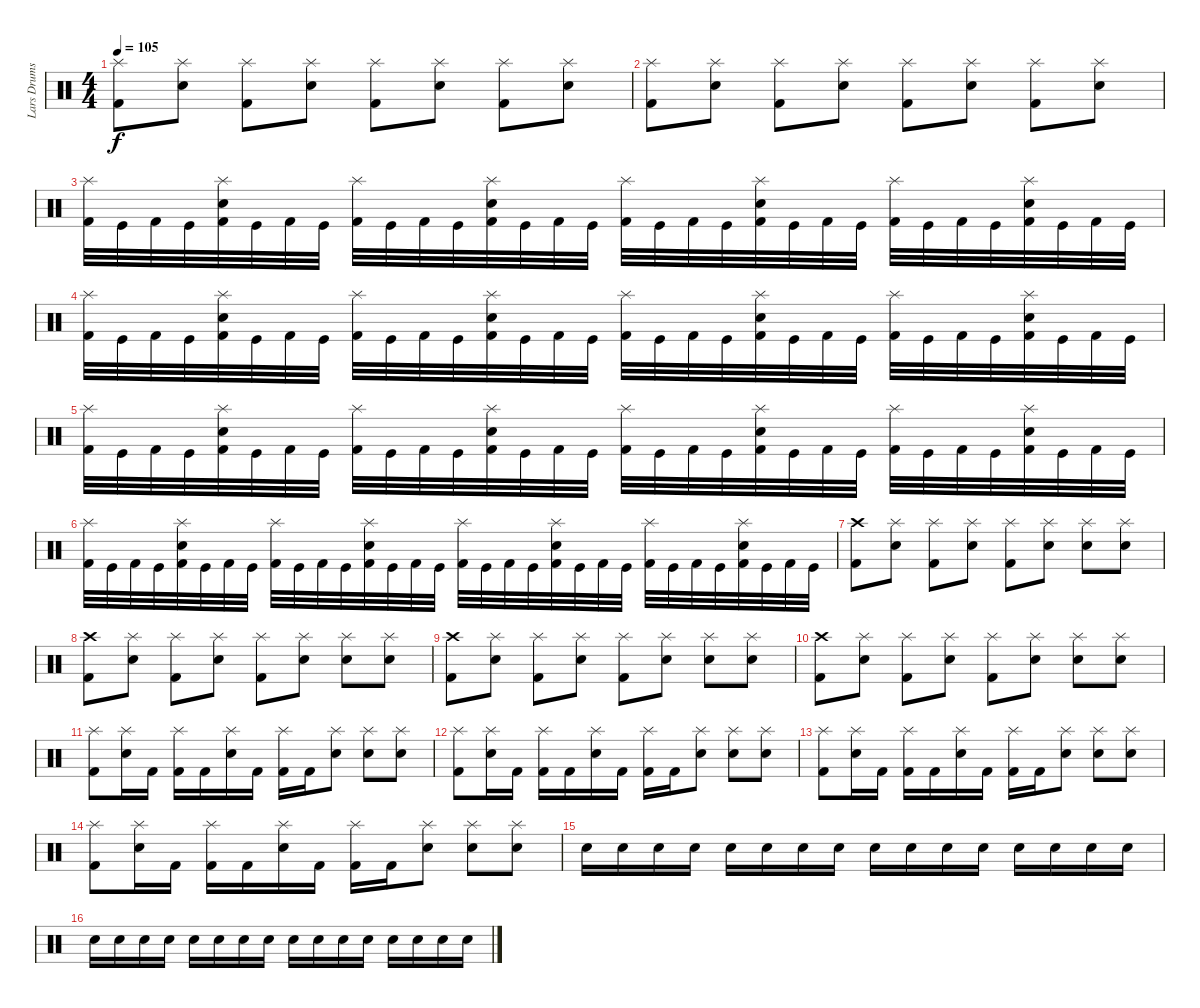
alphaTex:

\track ("Lars Drums" "Lars Drums") {instrument percussion}
\staff {score}
\articulation defaults
\ts (4 4)
\tempo 105
\clef neutral
\ks c
("Splash (hit)" "Kick (hit) 2").8{dy f} ("Splash (hit)" "Snare (hit) 2").8 ("Splash (hit)" "Kick (hit) 2").8 ("Splash (hit)" "Snare (hit) 2").8 ("Splash (hit)" "Kick (hit) 2").8 ("Splash (hit)" "Snare (hit) 2").8 ("Splash (hit)" "Kick (hit) 2").8 ("Splash (hit)" "Snare (hit) 2").8 |
("Splash (hit)" "Kick (hit) 2").8 ("Splash (hit)" "Snare (hit) 2").8 ("Splash (hit)" "Kick (hit) 2").8 ("Splash (hit)" "Snare (hit) 2").8 ("Splash (hit)" "Kick (hit) 2").8 ("Splash (hit)" "Snare (hit) 2").8 ("Splash (hit)" "Kick (hit) 2").8 ("Splash (hit)" "Snare (hit) 2").8 |
("Splash (hit)" "Kick (hit) 2").32 "Kick (hit)".32 "Kick (hit) 2".32 "Kick (hit)".32 ("Splash (hit)" "Snare (hit) 2" "Kick (hit) 2").32 "Kick (hit)".32 "Kick (hit) 2".32 "Kick (hit)".32 ("Splash (hit)" "Kick (hit) 2").32 "Kick (hit)".32 "Kick (hit) 2".32 "Kick (hit)".32 ("Splash (hit)" "Snare (hit) 2" "Kick (hit) 2").32 "Kick (hit)".32 "Kick (hit) 2".32 "Kick (hit)".32 ("Splash (hit)" "Kick (hit) 2").32 "Kick (hit)".32 "Kick (hit) 2".32 "Kick (hit)".32 ("Splash (hit)" "Snare (hit) 2" "Kick (hit) 2").32 "Kick (hit)".32 "Kick (hit) 2".32 "Kick (hit)".32 ("Splash (hit)" "Kick (hit) 2").32 "Kick (hit)".32 "Kick (hit) 2".32 "Kick (hit)".32 ("Splash (hit)" "Snare (hit) 2" "Kick (hit) 2").32 "Kick (hit)".32 "Kick (hit) 2".32 "Kick (hit)".32 |
("Splash (hit)" "Kick (hit) 2").32 "Kick (hit)".32 "Kick (hit) 2".32 "Kick (hit)".32 ("Splash (hit)" "Snare (hit) 2" "Kick (hit) 2").32 "Kick (hit)".32 "Kick (hit) 2".32 "Kick (hit)".32 ("Splash (hit)" "Kick (hit) 2").32 "Kick (hit)".32 "Kick (hit) 2".32 "Kick (hit)".32 ("Splash (hit)" "Snare (hit) 2" "Kick (hit) 2").32 "Kick (hit)".32 "Kick (hit) 2".32 "Kick (hit)".32 ("Splash (hit)" "Kick (hit) 2").32 "Kick (hit)".32 "Kick (hit) 2".32 "Kick (hit)".32 ("Splash (hit)" "Snare (hit) 2" "Kick (hit) 2").32 "Kick (hit)".32 "Kick (hit) 2".32 "Kick (hit)".32 ("Splash (hit)" "Kick (hit) 2").32 "Kick (hit)".32 "Kick (hit) 2".32 "Kick (hit)".32 ("Splash (hit)" "Snare (hit) 2" "Kick (hit) 2").32 "Kick (hit)".32 "Kick (hit) 2".32 "Kick (hit)".32 |
("Splash (hit)" "Kick (hit) 2").32 "Kick (hit)".32 "Kick (hit) 2".32 "Kick (hit)".32 ("Splash (hit)" "Snare (hit) 2" "Kick (hit) 2").32 "Kick (hit)".32 "Kick (hit) 2".32 "Kick (hit)".32 ("Splash (hit)" "Kick (hit) 2").32 "Kick (hit)".32 "Kick (hit) 2".32 "Kick (hit)".32 ("Splash (hit)" "Snare (hit) 2" "Kick (hit) 2").32 "Kick (hit)".32 "Kick (hit) 2".32 "Kick (hit)".32 ("Splash (hit)" "Kick (hit) 2").32 "Kick (hit)".32 "Kick (hit) 2".32 "Kick (hit)".32 ("Splash (hit)" "Snare (hit) 2" "Kick (hit) 2").32 "Kick (hit)".32 "Kick (hit) 2".32 "Kick (hit)".32 ("Splash (hit)" "Kick (hit) 2").32 "Kick (hit)".32 "Kick (hit) 2".32 "Kick (hit)".32 ("Splash (hit)" "Snare (hit) 2" "Kick (hit) 2").32 "Kick (hit)".32 "Kick (hit) 2".32 "Kick (hit)".32 |
("Splash (hit)" "Kick (hit) 2").32 "Kick (hit)".32 "Kick (hit) 2".32 "Kick (hit)".32 ("Splash (hit)" "Snare (hit) 2" "Kick (hit) 2").32 "Kick (hit)".32 "Kick (hit) 2".32 "Kick (hit)".32 ("Splash (hit)" "Kick (hit) 2").32 "Kick (hit)".32 "Kick (hit) 2".32 "Kick (hit)".32 ("Splash (hit)" "Snare (hit) 2" "Kick (hit) 2").32 "Kick (hit)".32 "Kick (hit) 2".32 "Kick (hit)".32 ("Splash (hit)" "Kick (hit) 2").32 "Kick (hit)".32 "Kick (hit) 2".32 "Kick (hit)".32 ("Splash (hit)" "Snare (hit) 2" "Kick (hit) 2").32 "Kick (hit)".32 "Kick (hit) 2".32 "Kick (hit)".32 ("Splash (hit)" "Kick (hit) 2").32 "Kick (hit)".32 "Kick (hit) 2".32 "Kick (hit)".32 ("Splash (hit)" "Snare (hit) 2" "Kick (hit) 2").32 "Kick (hit)".32 "Kick (hit) 2".32 "Kick (hit)".32 |
("Crash high (hit)" "Kick (hit) 2").8 ("Splash (hit)" "Snare (hit) 2").8 ("Splash (hit)" "Kick (hit) 2").8 ("Splash (hit)" "Snare (hit) 2").8 ("Splash (hit)" "Kick (hit) 2").8 ("Splash (hit)" "Snare (hit) 2").8 ("Splash (hit)" "Snare (hit) 2").8 ("Splash (hit)" "Snare (hit) 2").8 |
("Crash high (hit)" "Kick (hit) 2").8 ("Splash (hit)" "Snare (hit) 2").8 ("Splash (hit)" "Kick (hit) 2").8 ("Splash (hit)" "Snare (hit) 2").8 ("Splash (hit)" "Kick (hit) 2").8 ("Splash (hit)" "Snare (hit) 2").8 ("Splash (hit)" "Snare (hit) 2").8 ("Splash (hit)" "Snare (hit) 2").8 |
("Crash high (hit)" "Kick (hit) 2").8 ("Splash (hit)" "Snare (hit) 2").8 ("Splash (hit)" "Kick (hit) 2").8 ("Splash (hit)" "Snare (hit) 2").8 ("Splash (hit)" "Kick (hit) 2").8 ("Splash (hit)" "Snare (hit) 2").8 ("Splash (hit)" "Snare (hit) 2").8 ("Splash (hit)" "Snare (hit) 2").8 |
("Crash high (hit)" "Kick (hit) 2").8 ("Splash (hit)" "Snare (hit) 2").8 ("Splash (hit)" "Kick (hit) 2").8 ("Splash (hit)" "Snare (hit) 2").8 ("Splash (hit)" "Kick (hit) 2").8 ("Splash (hit)" "Snare (hit) 2").8 ("Splash (hit)" "Snare (hit) 2").8 ("Splash (hit)" "Snare (hit) 2").8 |
("Splash (hit)" "Kick (hit) 2").8 ("Splash (hit)" "Snare (hit) 2").16 "Kick (hit) 2".16 ("Splash (hit)" "Kick (hit) 2").16 "Kick (hit) 2".16 ("Splash (hit)" "Snare (hit) 2").16 "Kick (hit) 2".16 ("Splash (hit)" "Kick (hit) 2").16 "Kick (hit) 2".16 ("Splash (hit)" "Snare (hit) 2").8 ("Splash (hit)" "Snare (hit) 2").8 ("Splash (hit)" "Snare (hit) 2").8 |
("Splash (hit)" "Kick (hit) 2").8 ("Splash (hit)" "Snare (hit) 2").16 "Kick (hit) 2".16 ("Splash (hit)" "Kick (hit) 2").16 "Kick (hit) 2".16 ("Splash (hit)" "Snare (hit) 2").16 "Kick (hit) 2".16 ("Splash (hit)" "Kick (hit) 2").16 "Kick (hit) 2".16 ("Splash (hit)" "Snare (hit) 2").8 ("Splash (hit)" "Snare (hit) 2").8 ("Splash (hit)" "Snare (hit) 2").8 |
("Splash (hit)" "Kick (hit) 2").8 ("Splash (hit)" "Snare (hit) 2").16 "Kick (hit) 2".16 ("Splash (hit)" "Kick (hit) 2").16 "Kick (hit) 2".16 ("Splash (hit)" "Snare (hit) 2").16 "Kick (hit) 2".16 ("Splash (hit)" "Kick (hit) 2").16 "Kick (hit) 2".16 ("Splash (hit)" "Snare (hit) 2").8 ("Splash (hit)" "Snare (hit) 2").8 ("Splash (hit)" "Snare (hit) 2").8 |
("Splash (hit)" "Kick (hit) 2").8 ("Splash (hit)" "Snare (hit) 2").16 "Kick (hit) 2".16 ("Splash (hit)" "Kick (hit) 2").16 "Kick (hit) 2".16 ("Splash (hit)" "Snare (hit) 2").16 "Kick (hit) 2".16 ("Splash (hit)" "Kick (hit) 2").16 "Kick (hit) 2".16 ("Splash (hit)" "Snare (hit) 2").8 ("Splash (hit)" "Snare (hit) 2").8 ("Splash (hit)" "Snare (hit) 2").8 |
"Snare (hit) 2".16{volume 7} "Snare (hit) 2".16{volume 16} "Snare (hit) 2".16 "Snare (hit) 2".16 "Snare (hit) 2".16 "Snare (hit) 2".16 "Snare (hit) 2".16 "Snare (hit) 2".16 "Snare (hit) 2".16 "Snare (hit) 2".16 "Snare (hit) 2".16 "Snare (hit) 2".16 "Snare (hit) 2".16 "Snare (hit) 2".16 "Snare (hit) 2".16 "Snare (hit) 2".16 |
"Snare (hit) 2".16 "Snare (hit) 2".16 "Snare (hit) 2".16 "Snare (hit) 2".16 "Snare (hit) 2".16 "Snare (hit) 2".16 "Snare (hit) 2".16 "Snare (hit) 2".16 "Snare (hit) 2".16{volume 16} "Snare (hit) 2".16 "Snare (hit) 2".16 "Snare (hit) 2".16 "Snare (hit) 2".16 "Snare (hit) 2".16 "Snare (hit) 2".16 "Snare (hit) 2".16
